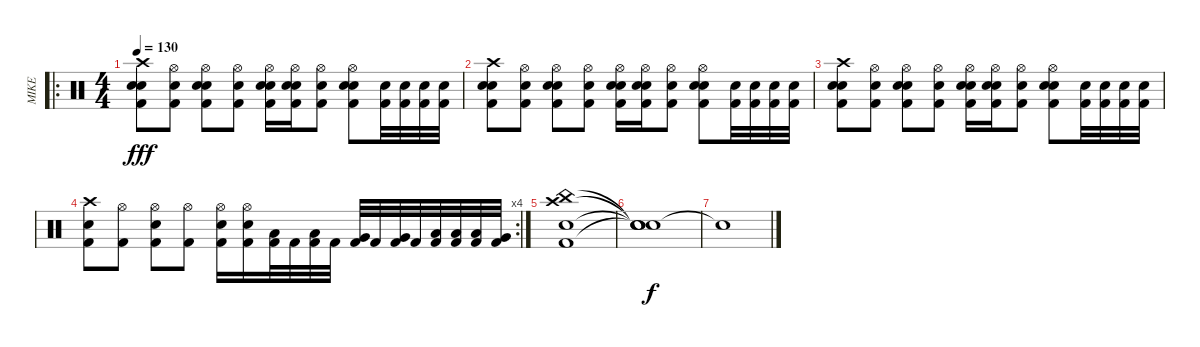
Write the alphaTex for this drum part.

\track ("MIKE" "MIKE") {instrument percussion}
\staff {score}
\articulation defaults
\ro
\ts (4 4)
\tempo 130
\clef neutral
\ks c
("Crash high (hit)" "Electric Snare (hit)" "Electric Snare (hit)" "Kick (hit) 2").8{dy fff} ("Hi-Hat (open)" "Electric Snare (hit)" "Kick (hit) 2").8 ("Hi-Hat (open)" "Electric Snare (hit)" "Electric Snare (hit)" "Kick (hit) 2").8 ("Hi-Hat (open)" "Electric Snare (hit)" "Kick (hit) 2").8 ("Hi-Hat (open)" "Electric Snare (hit)" "Electric Snare (hit)" "Kick (hit) 2").16 ("Hi-Hat (open)" "Electric Snare (hit)" "Electric Snare (hit)" "Kick (hit) 2").16 ("Hi-Hat (open)" "Electric Snare (hit)" "Kick (hit) 2").8 ("Hi-Hat (open)" "Electric Snare (hit)" "Electric Snare (hit)" "Kick (hit) 2").8 ("Electric Snare (hit)" "Kick (hit) 2").32 ("Electric Snare (hit)" "Kick (hit) 2").32 ("Electric Snare (hit)" "Kick (hit) 2").32 ("Electric Snare (hit)" "Kick (hit) 2").32 |
("Crash high (hit)" "Electric Snare (hit)" "Electric Snare (hit)" "Kick (hit) 2").8 ("Hi-Hat (open)" "Electric Snare (hit)" "Kick (hit) 2").8 ("Hi-Hat (open)" "Electric Snare (hit)" "Electric Snare (hit)" "Kick (hit) 2").8 ("Hi-Hat (open)" "Electric Snare (hit)" "Kick (hit) 2").8 ("Hi-Hat (open)" "Electric Snare (hit)" "Electric Snare (hit)" "Kick (hit) 2").16 ("Hi-Hat (open)" "Electric Snare (hit)" "Electric Snare (hit)" "Kick (hit) 2").16 ("Hi-Hat (open)" "Electric Snare (hit)" "Kick (hit) 2").8 ("Hi-Hat (open)" "Electric Snare (hit)" "Electric Snare (hit)" "Kick (hit) 2").8 ("Electric Snare (hit)" "Kick (hit) 2").32 ("Electric Snare (hit)" "Kick (hit) 2").32 ("Electric Snare (hit)" "Kick (hit) 2").32 ("Electric Snare (hit)" "Kick (hit) 2").32 |
("Crash high (hit)" "Electric Snare (hit)" "Electric Snare (hit)" "Kick (hit) 2").8 ("Hi-Hat (open)" "Electric Snare (hit)" "Kick (hit) 2").8 ("Hi-Hat (open)" "Electric Snare (hit)" "Electric Snare (hit)" "Kick (hit) 2").8 ("Hi-Hat (open)" "Electric Snare (hit)" "Kick (hit) 2").8 ("Hi-Hat (open)" "Electric Snare (hit)" "Electric Snare (hit)" "Kick (hit) 2").16 ("Hi-Hat (open)" "Electric Snare (hit)" "Electric Snare (hit)" "Kick (hit) 2").16 ("Hi-Hat (open)" "Electric Snare (hit)" "Kick (hit) 2").8 ("Hi-Hat (open)" "Electric Snare (hit)" "Electric Snare (hit)" "Kick (hit) 2").8 ("Electric Snare (hit)" "Kick (hit) 2").32 ("Electric Snare (hit)" "Kick (hit) 2").32 ("Electric Snare (hit)" "Kick (hit) 2").32 ("Electric Snare (hit)" "Kick (hit) 2").32 |
\rc 4
("Crash high (hit)" "Electric Snare (hit)" "Kick (hit) 2").8 ("Hi-Hat (open)" "Kick (hit) 2").8 ("Hi-Hat (open)" "Electric Snare (hit)" "Kick (hit) 2").8 ("Hi-Hat (open)" "Kick (hit) 2").8 ("Hi-Hat (open)" "Electric Snare (hit)" "Kick (hit) 2").16 ("Hi-Hat (open)" "Electric Snare (hit)" "Kick (hit) 2").16 ("Low Tom (hit)" "Kick (hit) 2").32 "Kick (hit) 2".32 ("Low Tom (hit)" "Kick (hit) 2").32 "Kick (hit) 2".32 ("Very Low Tom (hit)" "Kick (hit) 2").32 "Kick (hit) 2".32 ("Very Low Tom (hit)" "Kick (hit) 2").32 "Kick (hit) 2".32 ("Low Floor Tom (hit)" "Kick (hit) 2").32 ("Low Floor Tom (hit)" "Kick (hit) 2").32 ("Low Floor Tom (hit)" "Kick (hit) 2").32 ("Very Low Tom (hit)" "Kick (hit) 2").32 |
("China (hit)" "Electric Snare (hit)" "Kick (hit) 2" "Crash high (hit)").1 |
("Snare (hit)"{t} "Snare (hit)"{t} "Snare (hit)"{t} "Snare (hit)"{t}).1{dy f} |
"Snare (hit)"{t}.1
